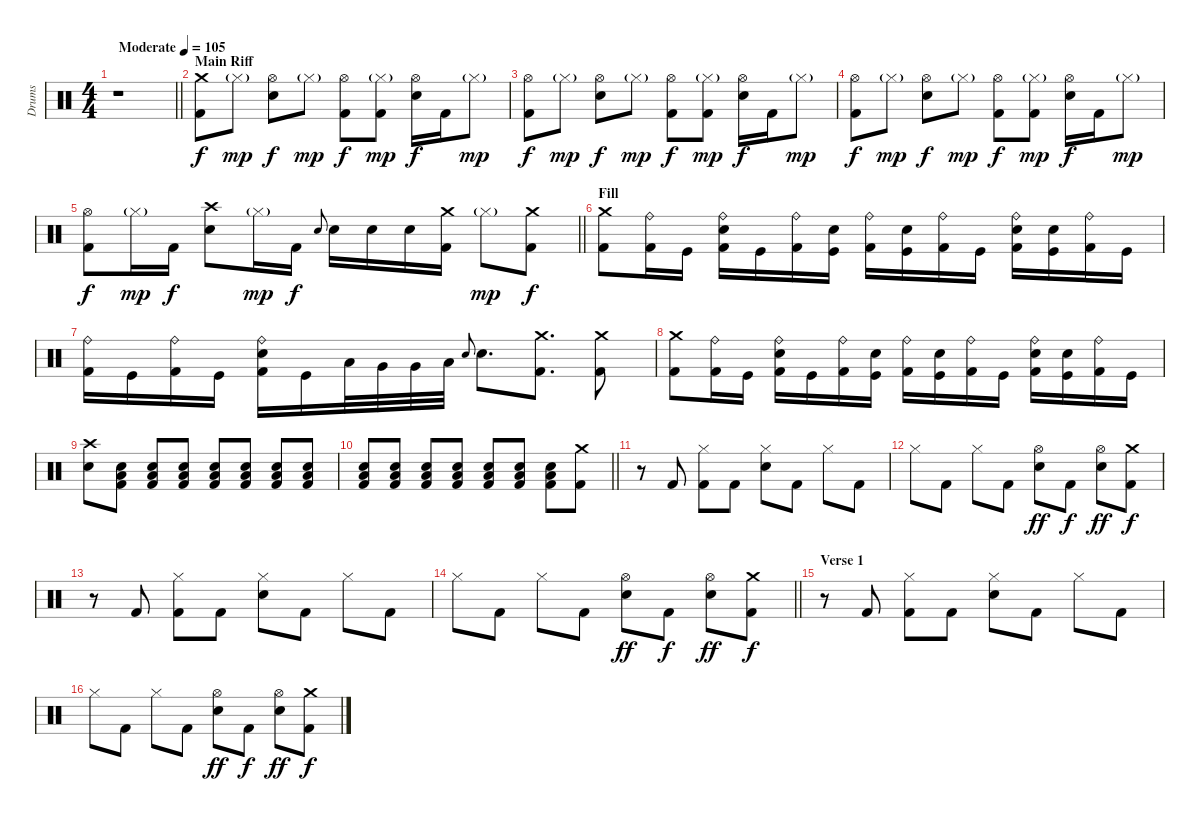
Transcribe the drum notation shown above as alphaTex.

\track ("Drums" "Drums") {instrument percussion}
\staff {score}
\articulation defaults
\ts (4 4)
\tempo (105 "Moderate")
\clef neutral
\barLineRight lightlight
\ks c
r.1{dy f} |
\section ("" "Main Riff")
("Crash medium (hit)" "Kick (hit) 2").8 "Hi-Hat (closed)"{g}.8{dy mp} ("Hi-Hat (open)" "Snare (hit) 2").8{dy f} "Hi-Hat (closed)"{g}.8{dy mp} ("Hi-Hat (open)" "Kick (hit) 2").8{dy f} ("Hi-Hat (closed)"{g} "Kick (hit) 2").8{dy mp} ("Hi-Hat (open)" "Snare (hit) 2").16{dy f} "Kick (hit) 2".16 "Hi-Hat (closed)"{g}.8{dy mp} |
("Hi-Hat (open)" "Kick (hit) 2").8{dy f} "Hi-Hat (closed)"{g}.8{dy mp} ("Hi-Hat (open)" "Snare (hit) 2").8{dy f} "Hi-Hat (closed)"{g}.8{dy mp} ("Hi-Hat (open)" "Kick (hit) 2").8{dy f} ("Hi-Hat (closed)"{g} "Kick (hit) 2").8{dy mp} ("Hi-Hat (open)" "Snare (hit) 2").16{dy f} "Kick (hit) 2".16 "Hi-Hat (closed)"{g}.8{dy mp} |
("Hi-Hat (open)" "Kick (hit) 2").8{dy f} "Hi-Hat (closed)"{g}.8{dy mp} ("Hi-Hat (open)" "Snare (hit) 2").8{dy f} "Hi-Hat (closed)"{g}.8{dy mp} ("Hi-Hat (open)" "Kick (hit) 2").8{dy f} ("Hi-Hat (closed)"{g} "Kick (hit) 2").8{dy mp} ("Hi-Hat (open)" "Snare (hit) 2").16{dy f} "Kick (hit) 2".16 "Hi-Hat (closed)"{g}.8{dy mp} |
\barLineRight lightlight
("Hi-Hat (open)" "Kick (hit) 2").8{dy f} "Hi-Hat (closed)"{g}.16{dy mp} "Kick (hit) 2".16{dy f} ("Crash high (hit)" "Snare (hit) 2").8 "Hi-Hat (closed)"{g}.16{dy mp} "Kick (hit) 2".16{dy f} "Electric Snare (hit)".8{gr onbeat} "Snare (hit) 2".16 "Snare (hit) 2".16 "Snare (hit) 2".16 ("Crash medium (hit)" "Kick (hit) 2").16 "Hi-Hat (closed)"{g}.8{dy mp} ("Crash medium (hit)" "Kick (hit) 2").8{dy f} |
\section ("" "Fill")
("Crash medium (hit)" "Kick (hit) 2").8 ("Ride (bell)" "Kick (hit) 2").16 "Kick (hit)".16 ("Ride (bell)" "Snare (hit) 2" "Kick (hit) 2").16 "Kick (hit)".16 ("Ride (bell)" "Kick (hit) 2").16 ("Snare (hit) 2" "Kick (hit)").16 ("Ride (bell)" "Kick (hit) 2").16 ("Snare (hit) 2" "Kick (hit)").16 ("Ride (bell)" "Kick (hit) 2").16 "Kick (hit)".16 ("Ride (bell)" "Snare (hit) 2" "Kick (hit) 2").16 ("Snare (hit) 2" "Kick (hit)").16 ("Ride (bell)" "Kick (hit) 2").16 "Kick (hit)".16 |
("Ride (bell)" "Kick (hit) 2").16 "Kick (hit)".16 ("Ride (bell)" "Kick (hit) 2").16 "Kick (hit)".16 ("Ride (bell)" "Snare (hit) 2" "Kick (hit) 2").16 "Kick (hit)".16 "Low Tom (hit)".32 "Very Low Tom (hit)".32 "Very Low Tom (hit)".32 "Low Floor Tom (hit)".32 "Electric Snare (hit)".8{gr onbeat} "Snare (hit) 2".8{d} ("Crash medium (hit)" "Kick (hit) 2").8{d} ("Crash medium (hit)" "Kick (hit) 2").8 |
("Crash medium (hit)" "Kick (hit) 2").8 ("Ride (bell)" "Kick (hit) 2").16 "Kick (hit)".16 ("Ride (bell)" "Snare (hit) 2" "Kick (hit) 2").16 "Kick (hit)".16 ("Ride (bell)" "Kick (hit) 2").16 ("Snare (hit) 2" "Kick (hit)").16 ("Ride (bell)" "Kick (hit) 2").16 ("Snare (hit) 2" "Kick (hit)").16 ("Ride (bell)" "Kick (hit) 2").16 "Kick (hit)".16 ("Ride (bell)" "Snare (hit) 2" "Kick (hit) 2").16 ("Snare (hit) 2" "Kick (hit)").16 ("Ride (bell)" "Kick (hit) 2").16 "Kick (hit)".16 |
("Crash high (hit)" "Snare (hit) 2").8 ("Low Floor Tom (hit)" "Snare (hit) 2" "Kick (hit) 2").8 ("Low Floor Tom (hit)" "Snare (hit) 2" "Kick (hit) 2").8 ("Low Floor Tom (hit)" "Snare (hit) 2" "Kick (hit) 2").8 ("Low Floor Tom (hit)" "Snare (hit) 2" "Kick (hit) 2").8 ("Low Floor Tom (hit)" "Snare (hit) 2" "Kick (hit) 2").8 ("Low Floor Tom (hit)" "Snare (hit) 2" "Kick (hit) 2").8 ("Low Floor Tom (hit)" "Snare (hit) 2" "Kick (hit) 2").8 |
\barLineRight lightlight
("Low Floor Tom (hit)" "Snare (hit) 2" "Kick (hit) 2").8 ("Low Floor Tom (hit)" "Snare (hit) 2" "Kick (hit) 2").8 ("Low Floor Tom (hit)" "Snare (hit) 2" "Kick (hit) 2").8 ("Low Floor Tom (hit)" "Snare (hit) 2" "Kick (hit) 2").8 ("Low Floor Tom (hit)" "Snare (hit) 2" "Kick (hit) 2").8 ("Low Floor Tom (hit)" "Snare (hit) 2" "Kick (hit) 2").8 ("Low Floor Tom (hit)" "Snare (hit) 2" "Kick (hit) 2").8 ("Crash medium (hit)" "Kick (hit) 2").8 |
r.8 "Kick (hit) 2".8 ("Hi-Hat (closed)" "Kick (hit) 2").8 "Kick (hit) 2".8 ("Hi-Hat (closed)" "Snare (hit) 2").8 "Kick (hit) 2".8 "Hi-Hat (closed)".8 "Kick (hit) 2".8 |
"Hi-Hat (closed)".8 "Kick (hit) 2".8 "Hi-Hat (closed)".8 "Kick (hit) 2".8 ("Hi-Hat (open)" "Snare (hit) 2").8{dy ff} "Kick (hit) 2".8{dy f} ("Hi-Hat (open)" "Snare (hit) 2").8{dy ff} ("Crash medium (hit)" "Kick (hit) 2").8{dy f} |
r.8 "Kick (hit) 2".8 ("Hi-Hat (closed)" "Kick (hit) 2").8 "Kick (hit) 2".8 ("Hi-Hat (closed)" "Snare (hit) 2").8 "Kick (hit) 2".8 "Hi-Hat (closed)".8 "Kick (hit) 2".8 |
\barLineRight lightlight "Hi-Hat (closed)".8 "Kick (hit) 2".8 "Hi-Hat (closed)".8 "Kick (hit) 2".8
("Hi-Hat (open)" "Snare (hit) 2").8{dy ff} "Kick (hit) 2".8{dy f} ("Hi-Hat (open)" "Snare (hit) 2").8{dy ff} ("Crash medium (hit)" "Kick (hit) 2").8{dy f} |
\section ("" "Verse 1")
r.8 "Kick (hit) 2".8 ("Hi-Hat (closed)" "Kick (hit) 2").8 "Kick (hit) 2".8 ("Hi-Hat (closed)" "Snare (hit) 2").8 "Kick (hit) 2".8 "Hi-Hat (closed)".8 "Kick (hit) 2".8 |
"Hi-Hat (closed)".8 "Kick (hit) 2".8 "Hi-Hat (closed)".8 "Kick (hit) 2".8 ("Hi-Hat (open)" "Snare (hit) 2").8{dy ff} "Kick (hit) 2".8{dy f} ("Hi-Hat (open)" "Snare (hit) 2").8{dy ff} ("Crash medium (hit)" "Kick (hit) 2").8{dy f}
